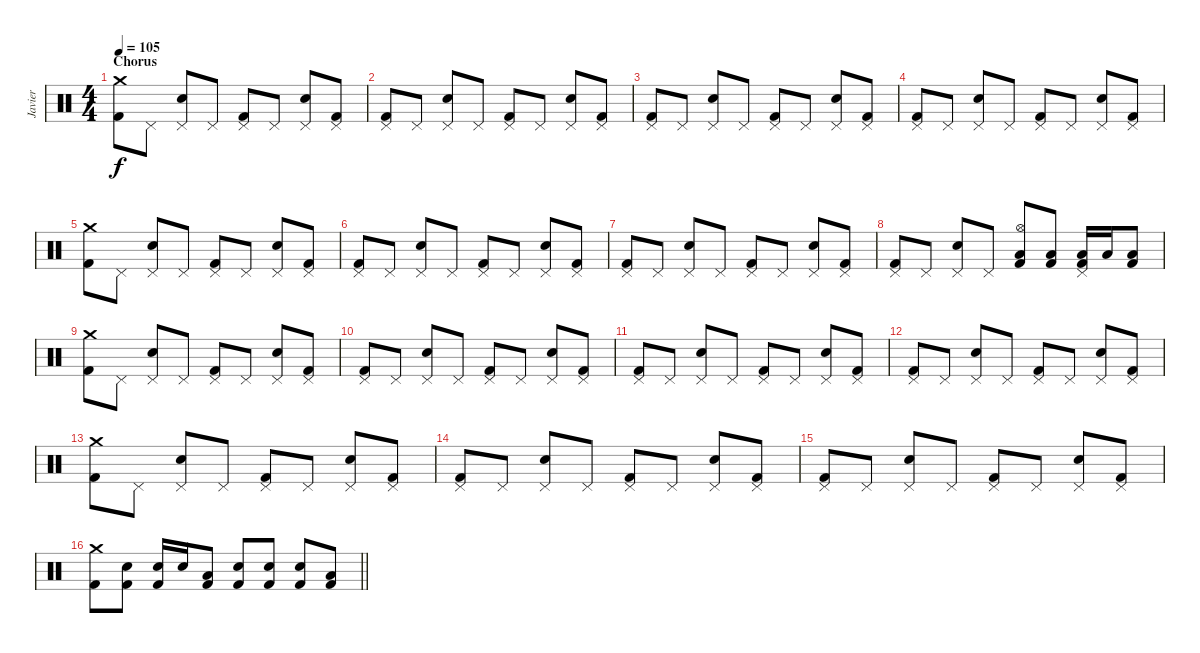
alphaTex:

\track ("Javier" "Javier") {instrument percussion}
\staff {score}
\articulation defaults
\ts (4 4)
\section ("" "Chorus")
\tempo 105
\clef neutral
\ks c
("Crash medium (hit)" "Kick (hit) 2").8{dy f} "Pedal Hi-Hat (hit)".8 ("Pedal Hi-Hat (hit)" "Snare (hit) 2").8 "Pedal Hi-Hat (hit)".8 ("Pedal Hi-Hat (hit)" "Kick (hit) 2").8 "Pedal Hi-Hat (hit)".8 ("Pedal Hi-Hat (hit)" "Snare (hit) 2").8 ("Pedal Hi-Hat (hit)" "Kick (hit) 2").8 |
("Pedal Hi-Hat (hit)" "Kick (hit) 2").8 "Pedal Hi-Hat (hit)".8 ("Pedal Hi-Hat (hit)" "Snare (hit) 2").8 "Pedal Hi-Hat (hit)".8 ("Pedal Hi-Hat (hit)" "Kick (hit) 2").8 "Pedal Hi-Hat (hit)".8 ("Pedal Hi-Hat (hit)" "Snare (hit) 2").8 ("Pedal Hi-Hat (hit)" "Kick (hit) 2").8 |
("Pedal Hi-Hat (hit)" "Kick (hit) 2").8 "Pedal Hi-Hat (hit)".8 ("Pedal Hi-Hat (hit)" "Snare (hit) 2").8 "Pedal Hi-Hat (hit)".8 ("Pedal Hi-Hat (hit)" "Kick (hit) 2").8 "Pedal Hi-Hat (hit)".8 ("Pedal Hi-Hat (hit)" "Snare (hit) 2").8 ("Pedal Hi-Hat (hit)" "Kick (hit) 2").8 |
("Pedal Hi-Hat (hit)" "Kick (hit) 2").8 "Pedal Hi-Hat (hit)".8 ("Pedal Hi-Hat (hit)" "Snare (hit) 2").8 "Pedal Hi-Hat (hit)".8 ("Pedal Hi-Hat (hit)" "Kick (hit) 2").8 "Pedal Hi-Hat (hit)".8 ("Pedal Hi-Hat (hit)" "Snare (hit) 2").8 ("Pedal Hi-Hat (hit)" "Kick (hit) 2").8 |
("Crash medium (hit)" "Kick (hit) 2").8 "Pedal Hi-Hat (hit)".8 ("Pedal Hi-Hat (hit)" "Snare (hit) 2").8 "Pedal Hi-Hat (hit)".8 ("Pedal Hi-Hat (hit)" "Kick (hit) 2").8 "Pedal Hi-Hat (hit)".8 ("Pedal Hi-Hat (hit)" "Snare (hit) 2").8 ("Pedal Hi-Hat (hit)" "Kick (hit) 2").8 |
("Pedal Hi-Hat (hit)" "Kick (hit) 2").8 "Pedal Hi-Hat (hit)".8 ("Pedal Hi-Hat (hit)" "Snare (hit) 2").8 "Pedal Hi-Hat (hit)".8 ("Pedal Hi-Hat (hit)" "Kick (hit) 2").8 "Pedal Hi-Hat (hit)".8 ("Pedal Hi-Hat (hit)" "Snare (hit) 2").8 ("Pedal Hi-Hat (hit)" "Kick (hit) 2").8 |
("Pedal Hi-Hat (hit)" "Kick (hit) 2").8 "Pedal Hi-Hat (hit)".8 ("Pedal Hi-Hat (hit)" "Snare (hit) 2").8 "Pedal Hi-Hat (hit)".8 ("Pedal Hi-Hat (hit)" "Kick (hit) 2").8 "Pedal Hi-Hat (hit)".8 ("Pedal Hi-Hat (hit)" "Snare (hit) 2").8 ("Pedal Hi-Hat (hit)" "Kick (hit) 2").8 |
("Pedal Hi-Hat (hit)" "Kick (hit) 2").8 "Pedal Hi-Hat (hit)".8 ("Pedal Hi-Hat (hit)" "Snare (hit) 2").8 "Pedal Hi-Hat (hit)".8 ("Hi-Hat (open)" "Low Tom (hit)" "Kick (hit) 2").8 ("Low Floor Tom (hit)" "Kick (hit) 2").8 ("Pedal Hi-Hat (hit)" "Low Tom (hit)" "Kick (hit) 2").16 "Low Tom (hit)".16 ("Low Floor Tom (hit)" "Kick (hit) 2").8 |
("Crash medium (hit)" "Kick (hit) 2").8 "Pedal Hi-Hat (hit)".8 ("Pedal Hi-Hat (hit)" "Snare (hit) 2").8 "Pedal Hi-Hat (hit)".8 ("Pedal Hi-Hat (hit)" "Kick (hit) 2").8 "Pedal Hi-Hat (hit)".8 ("Pedal Hi-Hat (hit)" "Snare (hit) 2").8 ("Pedal Hi-Hat (hit)" "Kick (hit) 2").8 |
("Pedal Hi-Hat (hit)" "Kick (hit) 2").8 "Pedal Hi-Hat (hit)".8 ("Pedal Hi-Hat (hit)" "Snare (hit) 2").8 "Pedal Hi-Hat (hit)".8 ("Pedal Hi-Hat (hit)" "Kick (hit) 2").8 "Pedal Hi-Hat (hit)".8 ("Pedal Hi-Hat (hit)" "Snare (hit) 2").8 ("Pedal Hi-Hat (hit)" "Kick (hit) 2").8 |
("Pedal Hi-Hat (hit)" "Kick (hit) 2").8 "Pedal Hi-Hat (hit)".8 ("Pedal Hi-Hat (hit)" "Snare (hit) 2").8 "Pedal Hi-Hat (hit)".8 ("Pedal Hi-Hat (hit)" "Kick (hit) 2").8 "Pedal Hi-Hat (hit)".8 ("Pedal Hi-Hat (hit)" "Snare (hit) 2").8 ("Pedal Hi-Hat (hit)" "Kick (hit) 2").8 |
("Pedal Hi-Hat (hit)" "Kick (hit) 2").8 "Pedal Hi-Hat (hit)".8 ("Pedal Hi-Hat (hit)" "Snare (hit) 2").8 "Pedal Hi-Hat (hit)".8 ("Pedal Hi-Hat (hit)" "Kick (hit) 2").8 "Pedal Hi-Hat (hit)".8 ("Pedal Hi-Hat (hit)" "Snare (hit) 2").8 ("Pedal Hi-Hat (hit)" "Kick (hit) 2").8 |
("Crash medium (hit)" "Kick (hit) 2").8 "Pedal Hi-Hat (hit)".8 ("Pedal Hi-Hat (hit)" "Snare (hit) 2").8 "Pedal Hi-Hat (hit)".8 ("Pedal Hi-Hat (hit)" "Kick (hit) 2").8 "Pedal Hi-Hat (hit)".8 ("Pedal Hi-Hat (hit)" "Snare (hit) 2").8 ("Pedal Hi-Hat (hit)" "Kick (hit) 2").8 |
("Pedal Hi-Hat (hit)" "Kick (hit) 2").8 "Pedal Hi-Hat (hit)".8 ("Pedal Hi-Hat (hit)" "Snare (hit) 2").8 "Pedal Hi-Hat (hit)".8 ("Pedal Hi-Hat (hit)" "Kick (hit) 2").8 "Pedal Hi-Hat (hit)".8 ("Pedal Hi-Hat (hit)" "Snare (hit) 2").8 ("Pedal Hi-Hat (hit)" "Kick (hit) 2").8 |
("Pedal Hi-Hat (hit)" "Kick (hit) 2").8 "Pedal Hi-Hat (hit)".8 ("Pedal Hi-Hat (hit)" "Snare (hit) 2").8 "Pedal Hi-Hat (hit)".8 ("Pedal Hi-Hat (hit)" "Kick (hit) 2").8 "Pedal Hi-Hat (hit)".8 ("Pedal Hi-Hat (hit)" "Snare (hit) 2").8 ("Pedal Hi-Hat (hit)" "Kick (hit) 2").8 |
\barLineRight lightlight
("Crash medium (hit)" "Kick (hit) 2").8 ("Snare (hit) 2" "Kick (hit) 2").8 ("Snare (hit) 2" "Kick (hit) 2").16 "Snare (hit) 2".16 ("Low Tom (hit)" "Kick (hit) 2").8 ("Snare (hit) 2" "Kick (hit) 2").8 ("Snare (hit) 2" "Kick (hit) 2").8 ("Snare (hit) 2" "Kick (hit) 2").8 ("Low Tom (hit)" "Kick (hit) 2").8
